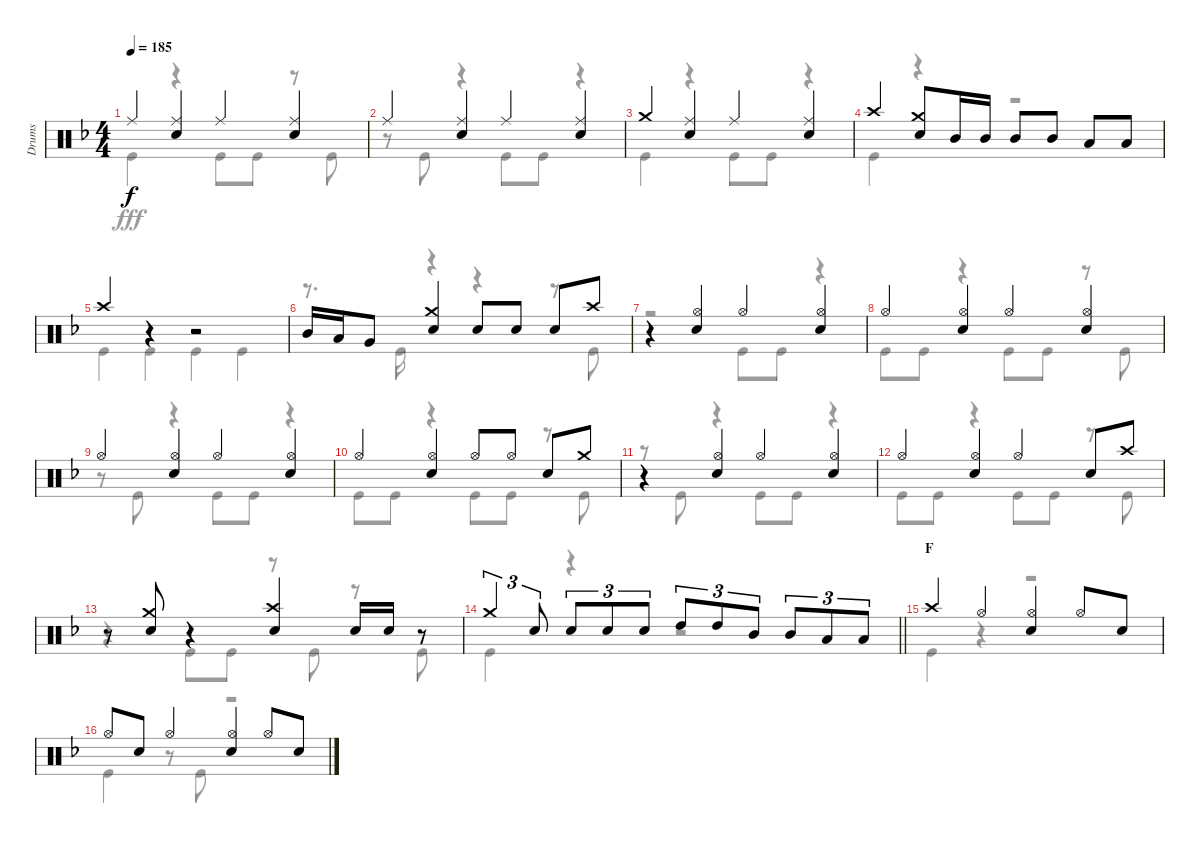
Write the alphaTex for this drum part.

\track ("Drums" "Drums") {instrument percussion}
\staff {score}
\articulation defaults
\voice
\ts (4 4)
\tempo 185
\clef neutral
\ks f "Ride (middle)".4{dy f}
("Ride (middle)" "Snare (hit) 2").4 "Ride (middle)".4 ("Ride (middle)" "Snare (hit) 2").4 |
"Ride (middle)".4 ("Ride (middle)" "Snare (hit) 2").4 "Ride (middle)".4 ("Ride (middle)" "Snare (hit) 2").4 |
"Crash medium (hit)".4 ("Ride (middle)" "Snare (hit) 2").4 "Ride (middle)".4 ("Ride (middle)" "Snare (hit) 2").4 |
"Crash high (hit)".4 ("Crash medium (hit)" "Snare (hit) 2").8 "Mid Tom (hit)".16 "Mid Tom (hit)".16 "Mid Tom (hit)".8 "Mid Tom (hit)".8 "Low Tom (hit)".8 "Low Tom (hit)".8 |
"Crash high (hit)".4 r.4 r.2 |
"Mid Tom (hit)".16 "Low Tom (hit)".16 "Very Low Tom (hit)".8 ("Crash medium (hit)" "Snare (hit) 2").4 "Snare (hit) 2".8 "Snare (hit) 2".8 "Snare (hit) 2".8 "Crash high (hit)".8 |
r.4 ("Hi-Hat (open)" "Snare (hit) 2").4 "Hi-Hat (open)".4 ("Hi-Hat (open)" "Snare (hit) 2").4 |
"Hi-Hat (open)".4 ("Hi-Hat (open)" "Snare (hit) 2").4 "Hi-Hat (open)".4 ("Hi-Hat (open)" "Snare (hit) 2").4 |
"Hi-Hat (open)".4 ("Hi-Hat (open)" "Snare (hit) 2").4 "Hi-Hat (open)".4 ("Hi-Hat (open)" "Snare (hit) 2").4 |
"Hi-Hat (open)".4 ("Hi-Hat (open)" "Snare (hit) 2").4 "Hi-Hat (open)".8 "Hi-Hat (open)".8 "Snare (hit) 2".8 "Crash medium (hit)".8 |
r.4 ("Hi-Hat (open)" "Snare (hit) 2").4 "Hi-Hat (open)".4 ("Hi-Hat (open)" "Snare (hit) 2").4 |
"Hi-Hat (open)".4 ("Hi-Hat (open)" "Snare (hit) 2").4 "Hi-Hat (open)".4 "Snare (hit) 2".8 "Crash high (hit)".8 |
r.8 ("Crash medium (hit)" "Snare (hit) 2").8 r.4 ("Crash high (hit)" "Snare (hit) 2").4 "Snare (hit) 2".16 "Snare (hit) 2".16 r.8 |
\barLineRight lightlight "Crash medium (hit)".4{tu (3 2)} "Snare (hit) 2".8{tu (3 2)} "Snare (hit) 2".8{tu (3 2)} "Snare (hit) 2".8{tu (3 2)} "Snare (hit) 2".8{tu (3 2)} "High Tom (hit)".8{tu (3 2)} "High Tom (hit)".8{tu (3 2)} "Mid Tom (hit)".8{tu (3 2)} "Mid Tom (hit)".8{tu (3 2)} "Low Tom (hit)".8{tu (3 2)} "Low Tom (hit)".8{tu (3 2)}
|
\section ("" "F")
"Crash high (hit)".4 "Hi-Hat (open)".4 ("Hi-Hat (open)" "Snare (hit) 2").4 "Hi-Hat (open)".8 "Snare (hit) 2".8 |
"Hi-Hat (open)".8 "Snare (hit) 2".8 "Hi-Hat (open)".4 ("Hi-Hat (open)" "Snare (hit) 2").4 "Hi-Hat (open)".8 "Snare (hit) 2".8
\voice
\clef neutral
\ottava regular
\simile none
\ks f "Kick (hit)".4{dy fff}
r.4 "Kick (hit)".8 "Kick (hit)".8 r.8 "Kick (hit)".8 |
r.8 "Kick (hit)".8 r.4 "Kick (hit)".8 "Kick (hit)".8 r.4 |
"Kick (hit)".4 r.4 "Kick (hit)".8 "Kick (hit)".8 r.4 |
"Kick (hit)".4 r.4 r.2 |
"Kick (hit)".4 "Kick (hit)".4 "Kick (hit)".4 "Kick (hit)".4 |
r.8{d} "Kick (hit)".16 r.4 r.4 r.8 "Kick (hit)".8 |
r.2 "Kick (hit)".8 "Kick (hit)".8 r.4 |
"Kick (hit)".8 "Kick (hit)".8 r.4 "Kick (hit)".8 "Kick (hit)".8 r.8 "Kick (hit)".8 |
r.8 "Kick (hit)".8 r.4 "Kick (hit)".8 "Kick (hit)".8 r.4 |
"Kick (hit)".8 "Kick (hit)".8 r.4 "Kick (hit)".8 "Kick (hit)".8 r.8 "Kick (hit)".8 |
r.8 "Kick (hit)".8 r.4 "Kick (hit)".8 "Kick (hit)".8 r.4 |
"Kick (hit)".8 "Kick (hit)".8 r.4 "Kick (hit)".8 "Kick (hit)".8 r.8 "Kick (hit)".8 |
r.4 "Kick (hit)".8 "Kick (hit)".8 r.8 "Kick (hit)".8 r.8 "Kick (hit)".8 |
\barLineRight lightlight "Kick (hit)".4
r.4 r.2 |
"Kick (hit)".4 r.4 r.2 |
"Kick (hit)".4 r.8 "Kick (hit)".8 r.2
